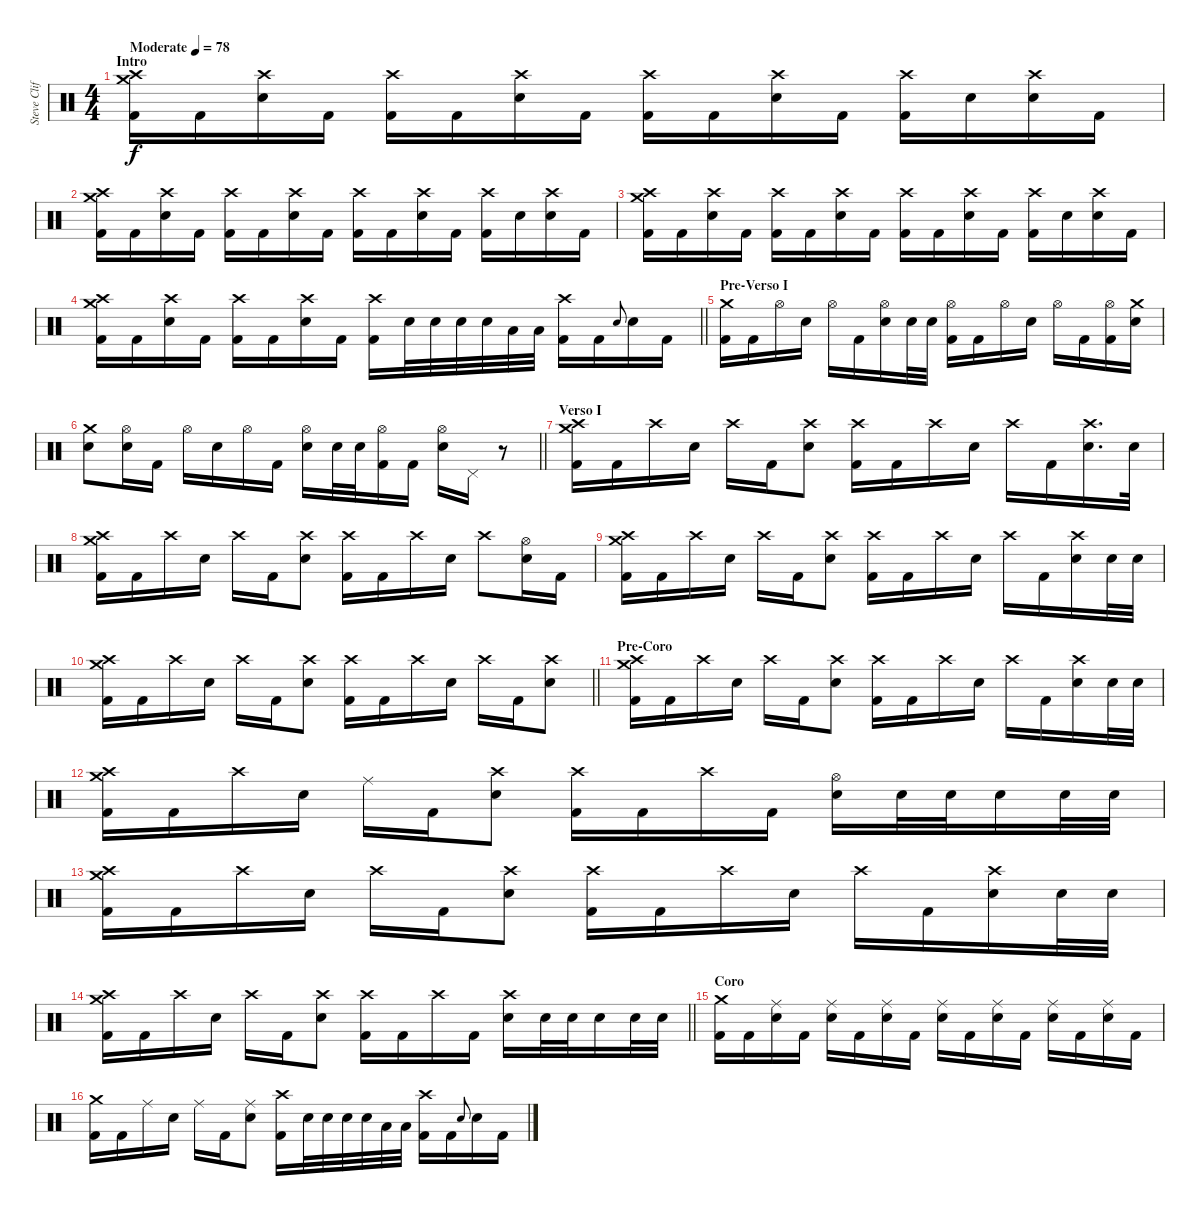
\track ("Steve Clifford" "Steve Clif") {instrument percussion}
\staff
\articulation defaults
\ts (4 4)
\section ("" "Intro")
\tempo (78 "Moderate")
\clef neutral
\ks c
("Crash medium (hit)" "Crash high (hit)" "Kick (hit) 2").16{dy f} "Kick (hit) 2".16 ("Crash high (hit)" "Electric Snare (hit)").16 "Kick (hit) 2".16 ("Crash high (hit)" "Kick (hit) 2").16 "Kick (hit) 2".16 ("Crash high (hit)" "Electric Snare (hit)").16 "Kick (hit) 2".16 ("Crash high (hit)" "Kick (hit) 2").16 "Kick (hit) 2".16 ("Crash high (hit)" "Electric Snare (hit)").16 "Kick (hit) 2".16 ("Crash high (hit)" "Kick (hit) 2").16 "Electric Snare (hit)".16 ("Crash high (hit)" "Electric Snare (hit)").16 "Kick (hit) 2".16 |
("Crash medium (hit)" "Crash high (hit)" "Kick (hit) 2").16 "Kick (hit) 2".16 ("Crash high (hit)" "Electric Snare (hit)").16 "Kick (hit) 2".16 ("Crash high (hit)" "Kick (hit) 2").16 "Kick (hit) 2".16 ("Crash high (hit)" "Electric Snare (hit)").16 "Kick (hit) 2".16 ("Crash high (hit)" "Kick (hit) 2").16 "Kick (hit) 2".16 ("Crash high (hit)" "Electric Snare (hit)").16 "Kick (hit) 2".16 ("Crash high (hit)" "Kick (hit) 2").16 "Electric Snare (hit)".16 ("Crash high (hit)" "Electric Snare (hit)").16 "Kick (hit) 2".16 |
("Crash medium (hit)" "Crash high (hit)" "Kick (hit) 2").16 "Kick (hit) 2".16 ("Crash high (hit)" "Electric Snare (hit)").16 "Kick (hit) 2".16 ("Crash high (hit)" "Kick (hit) 2").16 "Kick (hit) 2".16 ("Crash high (hit)" "Electric Snare (hit)").16 "Kick (hit) 2".16 ("Crash high (hit)" "Kick (hit) 2").16 "Kick (hit) 2".16 ("Crash high (hit)" "Electric Snare (hit)").16 "Kick (hit) 2".16 ("Crash high (hit)" "Kick (hit) 2").16 "Electric Snare (hit)".16 ("Crash high (hit)" "Electric Snare (hit)").16 "Kick (hit) 2".16 |
\barLineRight lightlight
("Crash medium (hit)" "Crash high (hit)" "Kick (hit) 2").16 "Kick (hit) 2".16 ("Crash high (hit)" "Electric Snare (hit)").16 "Kick (hit) 2".16 ("Crash high (hit)" "Kick (hit) 2").16 "Kick (hit) 2".16 ("Crash high (hit)" "Electric Snare (hit)").16 "Kick (hit) 2".16 ("Crash high (hit)" "Kick (hit) 2").16 "Electric Snare (hit)".32 "Electric Snare (hit)".32 "Electric Snare (hit)".32 "Electric Snare (hit)".32 "Low Tom (hit)".32 "Low Tom (hit)".32 ("Crash high (hit)" "Kick (hit) 2").16 "Kick (hit) 2".16 "Electric Snare (hit)".8{gr onbeat} "Electric Snare (hit)".16 "Kick (hit) 2".16 |
\section ("" "Pre-Verso I")
("Crash medium (hit)" "Kick (hit) 2").16 "Kick (hit) 2".16 "Hi-Hat (open)".16 "Electric Snare (hit)".16 "Hi-Hat (open)".16 "Kick (hit) 2".16 ("Hi-Hat (open)" "Electric Snare (hit)").16 "Electric Snare (hit)".32 "Electric Snare (hit)".32 ("Hi-Hat (open)" "Kick (hit) 2").16 "Kick (hit) 2".16 "Hi-Hat (open)".16 "Electric Snare (hit)".16 "Hi-Hat (open)".16 "Kick (hit) 2".16 ("Hi-Hat (open)" "Kick (hit) 2").16 ("Crash medium (hit)" "Electric Snare (hit)").16 |
\barLineRight lightlight
("Crash medium (hit)" "Electric Snare (hit)").8 ("Hi-Hat (open)" "Electric Snare (hit)").16 "Kick (hit) 2".16 "Hi-Hat (open)".16 "Electric Snare (hit)".16 "Hi-Hat (open)".16 "Kick (hit) 2".16 ("Hi-Hat (open)" "Electric Snare (hit)").16 "Electric Snare (hit)".32 "Electric Snare (hit)".32 ("Hi-Hat (open)" "Kick (hit) 2").16 "Kick (hit) 2".16 ("Hi-Hat (open)" "Electric Snare (hit)").16 "Pedal Hi-Hat (hit)".16 r.8 |
\section ("" "Verso I")
("Crash medium (hit)" "Crash high (hit)" "Kick (hit) 2").16 "Kick (hit) 2".16 "Crash high (hit)".16 "Electric Snare (hit)".16 "Crash high (hit)".16 "Kick (hit) 2".16 ("Crash high (hit)" "Electric Snare (hit)").8 ("Crash high (hit)" "Kick (hit) 2").16 "Kick (hit) 2".16 "Crash high (hit)".16 "Electric Snare (hit)".16 "Crash high (hit)".16 "Kick (hit) 2".16 ("Crash high (hit)" "Electric Snare (hit)").16{d} "Electric Snare (hit)".32 |
("Crash medium (hit)" "Crash high (hit)" "Kick (hit) 2").16 "Kick (hit) 2".16 "Crash high (hit)".16 "Electric Snare (hit)".16 "Crash high (hit)".16 "Kick (hit) 2".16 ("Crash high (hit)" "Electric Snare (hit)").8 ("Crash high (hit)" "Kick (hit) 2").16 "Kick (hit) 2".16 "Crash high (hit)".16 "Electric Snare (hit)".16 "Crash high (hit)".8 ("Hi-Hat (open)" "Electric Snare (hit)").16 "Kick (hit) 2".16 |
("Crash medium (hit)" "Crash high (hit)" "Kick (hit) 2").16 "Kick (hit) 2".16 "Crash high (hit)".16 "Electric Snare (hit)".16 "Crash high (hit)".16 "Kick (hit) 2".16 ("Crash high (hit)" "Electric Snare (hit)").8 ("Crash high (hit)" "Kick (hit) 2").16 "Kick (hit) 2".16 "Crash high (hit)".16 "Electric Snare (hit)".16 "Crash high (hit)".16 "Kick (hit) 2".16 ("Crash high (hit)" "Electric Snare (hit)").16 "Electric Snare (hit)".32 "Electric Snare (hit)".32 |
\barLineRight lightlight
("Crash medium (hit)" "Crash high (hit)" "Kick (hit) 2").16 "Kick (hit) 2".16 "Crash high (hit)".16 "Electric Snare (hit)".16 "Crash high (hit)".16 "Kick (hit) 2".16 ("Crash high (hit)" "Electric Snare (hit)").8 ("Crash high (hit)" "Kick (hit) 2").16 "Kick (hit) 2".16 "Crash high (hit)".16 "Electric Snare (hit)".16 "Crash high (hit)".16 "Kick (hit) 2".16 ("Crash high (hit)" "Electric Snare (hit)").8 |
\section ("" "Pre-Coro")
("Crash medium (hit)" "Crash high (hit)" "Kick (hit) 2").16 "Kick (hit) 2".16 "Crash high (hit)".16 "Electric Snare (hit)".16 "Crash high (hit)".16 "Kick (hit) 2".16 ("Crash high (hit)" "Electric Snare (hit)").8 ("Crash high (hit)" "Kick (hit) 2").16 "Kick (hit) 2".16 "Crash high (hit)".16 "Electric Snare (hit)".16 "Crash high (hit)".16 "Kick (hit) 2".16 ("Crash high (hit)" "Electric Snare (hit)").16 "Electric Snare (hit)".32 "Electric Snare (hit)".32 |
("Crash medium (hit)" "Crash high (hit)" "Kick (hit) 2").16 "Kick (hit) 2".16 "Crash high (hit)".16 "Electric Snare (hit)".16 "Ride (middle)".16 "Kick (hit) 2".16 ("Crash high (hit)" "Electric Snare (hit)").8 ("Crash high (hit)" "Kick (hit) 2").16 "Kick (hit) 2".16 "Crash high (hit)".16 "Kick (hit) 2".16 ("Hi-Hat (open)" "Electric Snare (hit)").16 "Electric Snare (hit)".32 "Electric Snare (hit)".32 "Electric Snare (hit)".16 "Electric Snare (hit)".32 "Electric Snare (hit)".32 |
("Crash medium (hit)" "Crash high (hit)" "Kick (hit) 2").16 "Kick (hit) 2".16 "Crash high (hit)".16 "Electric Snare (hit)".16 "Crash high (hit)".16 "Kick (hit) 2".16 ("Crash high (hit)" "Electric Snare (hit)").8 ("Crash high (hit)" "Kick (hit) 2").16 "Kick (hit) 2".16 "Crash high (hit)".16 "Electric Snare (hit)".16 "Crash high (hit)".16 "Kick (hit) 2".16 ("Crash high (hit)" "Electric Snare (hit)").16 "Electric Snare (hit)".32 "Electric Snare (hit)".32 |
\barLineRight lightlight
("Crash medium (hit)" "Crash high (hit)" "Kick (hit) 2").16 "Kick (hit) 2".16 "Crash high (hit)".16 "Electric Snare (hit)".16 "Crash high (hit)".16 "Kick (hit) 2".16 ("Crash high (hit)" "Electric Snare (hit)").8 ("Crash high (hit)" "Kick (hit) 2").16 "Kick (hit) 2".16 "Crash high (hit)".16 "Kick (hit) 2".16 ("Crash high (hit)" "Electric Snare (hit)").16 "Electric Snare (hit)".32 "Electric Snare (hit)".32 "Electric Snare (hit)".16 "Electric Snare (hit)".32 "Electric Snare (hit)".32 |
\section ("" "Coro")
("Crash medium (hit)" "Kick (hit) 2").16 "Kick (hit) 2".16 ("Ride (middle)" "Electric Snare (hit)").16 "Kick (hit) 2".16 ("Ride (middle)" "Electric Snare (hit)").16 "Kick (hit) 2".16 ("Ride (middle)" "Electric Snare (hit)").16 "Kick (hit) 2".16 ("Ride (middle)" "Electric Snare (hit)").16 "Kick (hit) 2".16 ("Ride (middle)" "Electric Snare (hit)").16 "Kick (hit) 2".16 ("Ride (middle)" "Electric Snare (hit)").16 "Kick (hit) 2".16 ("Ride (middle)" "Electric Snare (hit)").16 "Kick (hit) 2".16 |
("Crash medium (hit)" "Kick (hit) 2").16 "Kick (hit) 2".16 "Ride (middle)".16 "Electric Snare (hit)".16 "Ride (middle)".16 "Kick (hit) 2".16 ("Ride (middle)" "Electric Snare (hit)").8 ("Crash high (hit)" "Kick (hit) 2").16 "Electric Snare (hit)".32 "Electric Snare (hit)".32 "Electric Snare (hit)".32 "Electric Snare (hit)".32 "Low Tom (hit)".32 "Low Tom (hit)".32 ("Crash high (hit)" "Kick (hit) 2").16 "Kick (hit) 2".16 "Electric Snare (hit)".8{gr onbeat} "Electric Snare (hit)".16 "Kick (hit) 2".16
